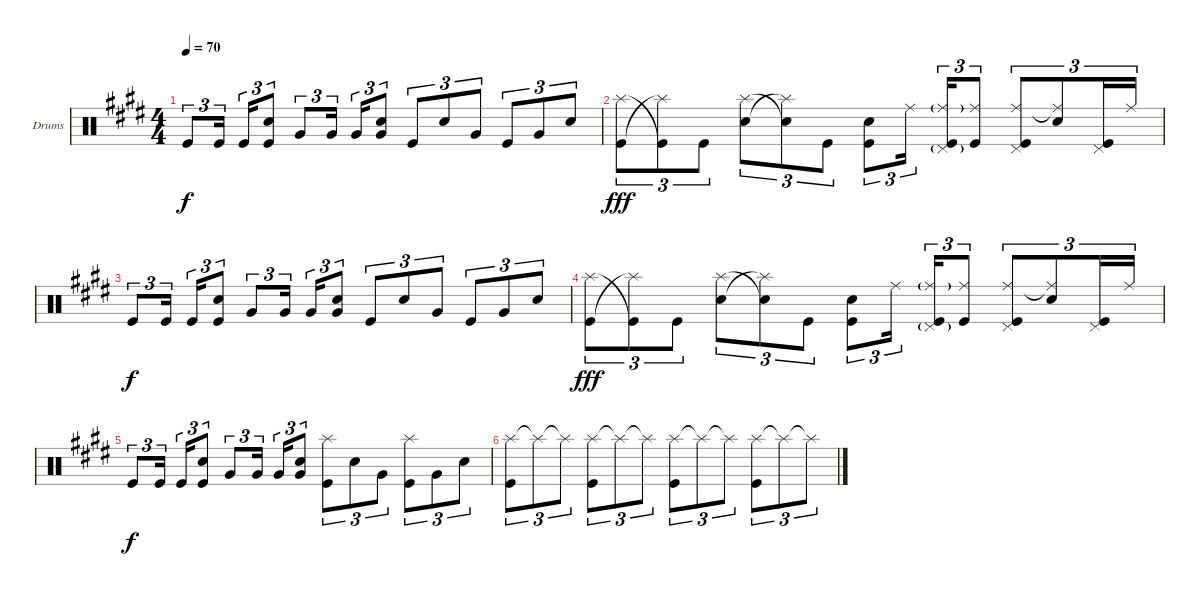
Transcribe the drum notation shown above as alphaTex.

\defaultSystemsLayout 4
\bracketExtendMode groupsimilarinstruments
\firstSystemTrackNameOrientation horizontal
\otherSystemsTrackNameOrientation horizontal
\track ("Drumkit" "Drums") {instrument percussion}
\staff {score}
\articulation defaults
\ts (4 4)
\tempo 70
\clef neutral
\ks c#minor "Kick (hit)".8{tu (3 2) dy f} "Kick (hit)".16{tu (3 2)} "Kick (hit)".16{tu (3 2)}
("Kick (hit)" "Snare (hit) 2").8{tu (3 2)} "Very Low Tom (hit)".8{tu (3 2)} "Very Low Tom (hit)".16{tu (3 2)} "Very Low Tom (hit)".16{tu (3 2)} ("Very Low Tom (hit)" "Snare (hit) 2").8{tu (3 2)} "Kick (hit)".8{tu (3 2)} "Snare (hit) 2".8{tu (3 2)} "Very Low Tom (hit)".8{tu (3 2)} "Kick (hit)".8{tu (3 2)} "Very Low Tom (hit)".8{tu (3 2)} "Snare (hit) 2".8{tu (3 2)} |
("Kick (hit)" "Splash (hit)").8{tu (3 2) dy fff} ("Splash (hit)"{t} "Kick (hit)"{t}).8{tu (3 2)} "Kick (hit)".8{tu (3 2)} ("Snare (hit) 2" "Splash (hit)").8{tu (3 2)} ("Splash (hit)"{t} "Snare (hit) 2"{t}).8{tu (3 2)} "Kick (hit)".8{tu (3 2)} ("Snare (hit) 2" "Kick (hit)").8{tu (3 2)} "Ride (middle)".16{tu (3 2)} ("Ride (middle)"{g} "Pedal Hi-Hat (hit)"{g} "Kick (hit)").16{tu (3 2)} ("Ride (middle)" "Kick (hit)").8{tu (3 2)} ("Ride (middle)" "Pedal Hi-Hat (hit)" "Kick (hit)").8{tu (3 2)} ("Ride (middle)"{t} "Snare (hit) 2").8{tu (3 2)} ("Pedal Hi-Hat (hit)" "Kick (hit)").16{tu (3 2)} "Ride (middle)".16{tu (3 2)} |
"Kick (hit)".8{tu (3 2) dy f} "Kick (hit)".16{tu (3 2)} "Kick (hit)".16{tu (3 2)} ("Kick (hit)" "Snare (hit) 2").8{tu (3 2)} "Very Low Tom (hit)".8{tu (3 2)} "Very Low Tom (hit)".16{tu (3 2)} "Very Low Tom (hit)".16{tu (3 2)} ("Very Low Tom (hit)" "Snare (hit) 2").8{tu (3 2)} "Kick (hit)".8{tu (3 2)} "Snare (hit) 2".8{tu (3 2)} "Very Low Tom (hit)".8{tu (3 2)} "Kick (hit)".8{tu (3 2)} "Very Low Tom (hit)".8{tu (3 2)} "Snare (hit) 2".8{tu (3 2)} |
("Kick (hit)" "Splash (hit)").8{tu (3 2) dy fff} ("Splash (hit)"{t} "Kick (hit)"{t}).8{tu (3 2)} "Kick (hit)".8{tu (3 2)} ("Snare (hit) 2" "Splash (hit)").8{tu (3 2)} ("Splash (hit)"{t} "Snare (hit) 2"{t}).8{tu (3 2)} "Kick (hit)".8{tu (3 2)} ("Snare (hit) 2" "Kick (hit)").8{tu (3 2)} "Ride (middle)".16{tu (3 2)} ("Ride (middle)"{g} "Pedal Hi-Hat (hit)"{g} "Kick (hit)").16{tu (3 2)} ("Ride (middle)" "Kick (hit)").8{tu (3 2)} ("Ride (middle)" "Pedal Hi-Hat (hit)" "Kick (hit)").8{tu (3 2)} ("Ride (middle)"{t} "Snare (hit) 2").8{tu (3 2)} ("Pedal Hi-Hat (hit)" "Kick (hit)").16{tu (3 2)} "Ride (middle)".16{tu (3 2)} |
"Kick (hit)".8{tu (3 2) dy f} "Kick (hit)".16{tu (3 2)} "Kick (hit)".16{tu (3 2)} ("Kick (hit)" "Snare (hit) 2").8{tu (3 2)} "Very Low Tom (hit)".8{tu (3 2)} "Very Low Tom (hit)".16{tu (3 2)} "Very Low Tom (hit)".16{tu (3 2)} ("Very Low Tom (hit)" "Snare (hit) 2").8{tu (3 2)} ("Kick (hit)" "Splash (hit)").8{tu (3 2)} "Snare (hit) 2".8{tu (3 2)} "Very Low Tom (hit)".8{tu (3 2)} ("Kick (hit)" "Splash (hit)").8{tu (3 2)} "Very Low Tom (hit)".8{tu (3 2)} "Snare (hit) 2".8{tu (3 2)} |
("Splash (hit)" "Kick (hit)").8{tu (3 2)} "Splash (hit)"{t}.8{tu (3 2)} "Splash (hit)"{t}.8{tu (3 2)} ("Splash (hit)" "Kick (hit)").8{tu (3 2)} "Splash (hit)"{t}.8{tu (3 2)} "Splash (hit)"{t}.8{tu (3 2)} ("Splash (hit)" "Kick (hit)").8{tu (3 2)} "Splash (hit)"{t}.8{tu (3 2)} "Splash (hit)"{t}.8{tu (3 2)} ("Splash (hit)" "Kick (hit)").8{tu (3 2)} "Splash (hit)"{t}.8{tu (3 2)} "Splash (hit)"{t}.8{tu (3 2)}
